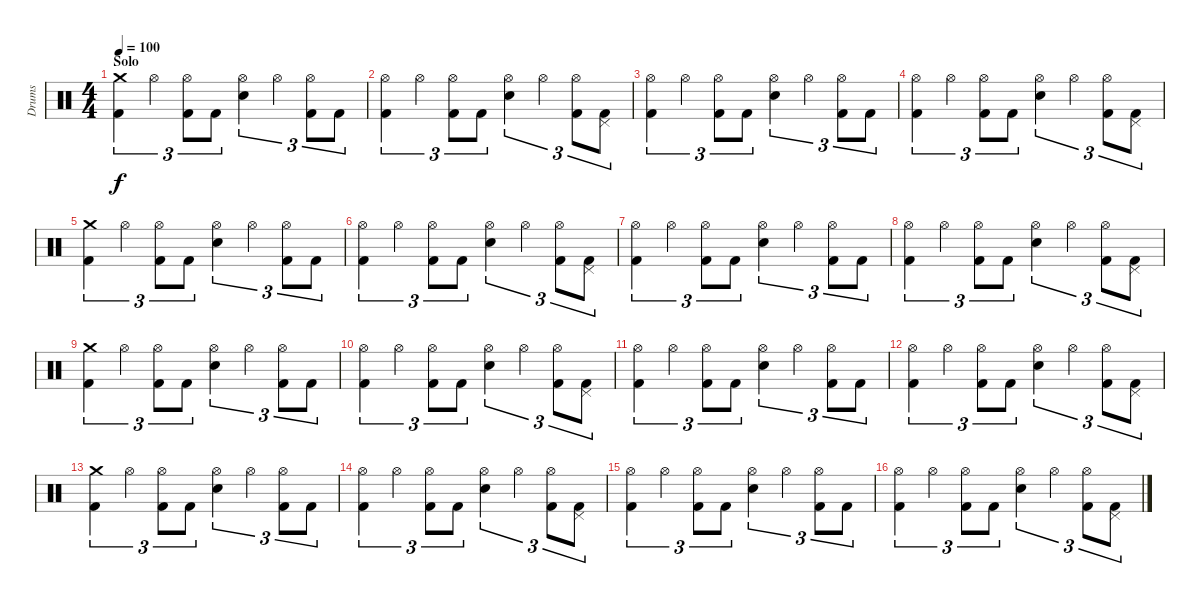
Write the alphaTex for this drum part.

\track ("Drums" "Drums") {instrument percussion}
\staff {score}
\articulation defaults
\ts (4 4)
\section ("" "Solo")
\tempo 100
\clef neutral
\ks c
("Crash medium (hit)" "Kick (hit) 2").4{tu (3 2) dy f} "Hi-Hat (open)".4{tu (3 2)} ("Hi-Hat (open)" "Kick (hit) 2").8{tu (3 2)} "Kick (hit) 2".8{tu (3 2)} ("Hi-Hat (open)" "Electric Snare (hit)").4{tu (3 2)} "Hi-Hat (open)".4{tu (3 2)} ("Hi-Hat (open)" "Kick (hit) 2").8{tu (3 2)} "Kick (hit) 2".8{tu (3 2)} |
("Hi-Hat (open)" "Kick (hit) 2").4{tu (3 2)} "Hi-Hat (open)".4{tu (3 2)} ("Hi-Hat (open)" "Kick (hit) 2").8{tu (3 2)} "Kick (hit) 2".8{tu (3 2)} ("Hi-Hat (open)" "Electric Snare (hit)").4{tu (3 2)} "Hi-Hat (open)".4{tu (3 2)} ("Hi-Hat (open)" "Kick (hit) 2").8{tu (3 2)} ("Pedal Hi-Hat (hit)" "Kick (hit) 2").8{tu (3 2)} |
("Hi-Hat (open)" "Kick (hit) 2").4{tu (3 2)} "Hi-Hat (open)".4{tu (3 2)} ("Hi-Hat (open)" "Kick (hit) 2").8{tu (3 2)} "Kick (hit) 2".8{tu (3 2)} ("Hi-Hat (open)" "Electric Snare (hit)").4{tu (3 2)} "Hi-Hat (open)".4{tu (3 2)} ("Hi-Hat (open)" "Kick (hit) 2").8{tu (3 2)} "Kick (hit) 2".8{tu (3 2)} |
("Hi-Hat (open)" "Kick (hit) 2").4{tu (3 2)} "Hi-Hat (open)".4{tu (3 2)} ("Hi-Hat (open)" "Kick (hit) 2").8{tu (3 2)} "Kick (hit) 2".8{tu (3 2)} ("Hi-Hat (open)" "Electric Snare (hit)").4{tu (3 2)} "Hi-Hat (open)".4{tu (3 2)} ("Hi-Hat (open)" "Kick (hit) 2").8{tu (3 2)} ("Pedal Hi-Hat (hit)" "Kick (hit) 2").8{tu (3 2)} |
("Crash medium (hit)" "Kick (hit) 2").4{tu (3 2)} "Hi-Hat (open)".4{tu (3 2)} ("Hi-Hat (open)" "Kick (hit) 2").8{tu (3 2)} "Kick (hit) 2".8{tu (3 2)} ("Hi-Hat (open)" "Electric Snare (hit)").4{tu (3 2)} "Hi-Hat (open)".4{tu (3 2)} ("Hi-Hat (open)" "Kick (hit) 2").8{tu (3 2)} "Kick (hit) 2".8{tu (3 2)} |
("Hi-Hat (open)" "Kick (hit) 2").4{tu (3 2)} "Hi-Hat (open)".4{tu (3 2)} ("Hi-Hat (open)" "Kick (hit) 2").8{tu (3 2)} "Kick (hit) 2".8{tu (3 2)} ("Hi-Hat (open)" "Electric Snare (hit)").4{tu (3 2)} "Hi-Hat (open)".4{tu (3 2)} ("Hi-Hat (open)" "Kick (hit) 2").8{tu (3 2)} ("Pedal Hi-Hat (hit)" "Kick (hit) 2").8{tu (3 2)} |
("Hi-Hat (open)" "Kick (hit) 2").4{tu (3 2)} "Hi-Hat (open)".4{tu (3 2)} ("Hi-Hat (open)" "Kick (hit) 2").8{tu (3 2)} "Kick (hit) 2".8{tu (3 2)} ("Hi-Hat (open)" "Electric Snare (hit)").4{tu (3 2)} "Hi-Hat (open)".4{tu (3 2)} ("Hi-Hat (open)" "Kick (hit) 2").8{tu (3 2)} "Kick (hit) 2".8{tu (3 2)} |
("Hi-Hat (open)" "Kick (hit) 2").4{tu (3 2)} "Hi-Hat (open)".4{tu (3 2)} ("Hi-Hat (open)" "Kick (hit) 2").8{tu (3 2)} "Kick (hit) 2".8{tu (3 2)} ("Hi-Hat (open)" "Electric Snare (hit)").4{tu (3 2)} "Hi-Hat (open)".4{tu (3 2)} ("Hi-Hat (open)" "Kick (hit) 2").8{tu (3 2)} ("Pedal Hi-Hat (hit)" "Kick (hit) 2").8{tu (3 2)} |
("Crash medium (hit)" "Kick (hit) 2").4{tu (3 2)} "Hi-Hat (open)".4{tu (3 2)} ("Hi-Hat (open)" "Kick (hit) 2").8{tu (3 2)} "Kick (hit) 2".8{tu (3 2)} ("Hi-Hat (open)" "Electric Snare (hit)").4{tu (3 2)} "Hi-Hat (open)".4{tu (3 2)} ("Hi-Hat (open)" "Kick (hit) 2").8{tu (3 2)} "Kick (hit) 2".8{tu (3 2)} |
("Hi-Hat (open)" "Kick (hit) 2").4{tu (3 2)} "Hi-Hat (open)".4{tu (3 2)} ("Hi-Hat (open)" "Kick (hit) 2").8{tu (3 2)} "Kick (hit) 2".8{tu (3 2)} ("Hi-Hat (open)" "Electric Snare (hit)").4{tu (3 2)} "Hi-Hat (open)".4{tu (3 2)} ("Hi-Hat (open)" "Kick (hit) 2").8{tu (3 2)} ("Pedal Hi-Hat (hit)" "Kick (hit) 2").8{tu (3 2)} |
("Hi-Hat (open)" "Kick (hit) 2").4{tu (3 2)} "Hi-Hat (open)".4{tu (3 2)} ("Hi-Hat (open)" "Kick (hit) 2").8{tu (3 2)} "Kick (hit) 2".8{tu (3 2)} ("Hi-Hat (open)" "Electric Snare (hit)").4{tu (3 2)} "Hi-Hat (open)".4{tu (3 2)} ("Hi-Hat (open)" "Kick (hit) 2").8{tu (3 2)} "Kick (hit) 2".8{tu (3 2)} |
("Hi-Hat (open)" "Kick (hit) 2").4{tu (3 2)} "Hi-Hat (open)".4{tu (3 2)} ("Hi-Hat (open)" "Kick (hit) 2").8{tu (3 2)} "Kick (hit) 2".8{tu (3 2)} ("Hi-Hat (open)" "Electric Snare (hit)").4{tu (3 2)} "Hi-Hat (open)".4{tu (3 2)} ("Hi-Hat (open)" "Kick (hit) 2").8{tu (3 2)} ("Pedal Hi-Hat (hit)" "Kick (hit) 2").8{tu (3 2)} |
("Crash medium (hit)" "Kick (hit) 2").4{tu (3 2)} "Hi-Hat (open)".4{tu (3 2)} ("Hi-Hat (open)" "Kick (hit) 2").8{tu (3 2)} "Kick (hit) 2".8{tu (3 2)} ("Hi-Hat (open)" "Electric Snare (hit)").4{tu (3 2)} "Hi-Hat (open)".4{tu (3 2)} ("Hi-Hat (open)" "Kick (hit) 2").8{tu (3 2)} "Kick (hit) 2".8{tu (3 2)} |
("Hi-Hat (open)" "Kick (hit) 2").4{tu (3 2)} "Hi-Hat (open)".4{tu (3 2)} ("Hi-Hat (open)" "Kick (hit) 2").8{tu (3 2)} "Kick (hit) 2".8{tu (3 2)} ("Hi-Hat (open)" "Electric Snare (hit)").4{tu (3 2)} "Hi-Hat (open)".4{tu (3 2)} ("Hi-Hat (open)" "Kick (hit) 2").8{tu (3 2)} ("Pedal Hi-Hat (hit)" "Kick (hit) 2").8{tu (3 2)} |
("Hi-Hat (open)" "Kick (hit) 2").4{tu (3 2)} "Hi-Hat (open)".4{tu (3 2)} ("Hi-Hat (open)" "Kick (hit) 2").8{tu (3 2)} "Kick (hit) 2".8{tu (3 2)} ("Hi-Hat (open)" "Electric Snare (hit)").4{tu (3 2)} "Hi-Hat (open)".4{tu (3 2)} ("Hi-Hat (open)" "Kick (hit) 2").8{tu (3 2)} "Kick (hit) 2".8{tu (3 2)} |
("Hi-Hat (open)" "Kick (hit) 2").4{tu (3 2)} "Hi-Hat (open)".4{tu (3 2)} ("Hi-Hat (open)" "Kick (hit) 2").8{tu (3 2)} "Kick (hit) 2".8{tu (3 2)} ("Hi-Hat (open)" "Electric Snare (hit)").4{tu (3 2)} "Hi-Hat (open)".4{tu (3 2)} ("Hi-Hat (open)" "Kick (hit) 2").8{tu (3 2)} ("Pedal Hi-Hat (hit)" "Kick (hit) 2").8{tu (3 2)}
